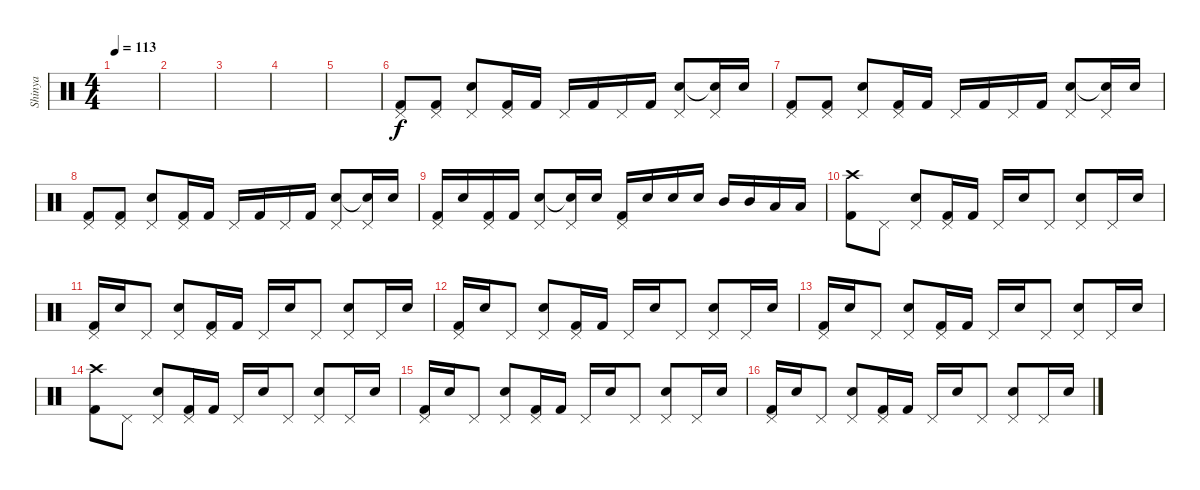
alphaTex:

\track ("Shinya" "Shinya") {instrument percussion}
\staff {score}
\articulation defaults
\ts (4 4)
\tempo 113
\clef neutral
\ks c
|
|
|
|
|
("Pedal Hi-Hat (hit)" "Kick (hit) 2").8 ("Pedal Hi-Hat (hit)" "Kick (hit) 2").8 ("Pedal Hi-Hat (hit)" "Electric Snare (hit)").8 ("Pedal Hi-Hat (hit)" "Kick (hit) 2").16 "Kick (hit) 2".16 "Pedal Hi-Hat (hit)".16 "Kick (hit) 2".16 "Pedal Hi-Hat (hit)".16 "Kick (hit) 2".16 ("Pedal Hi-Hat (hit)" "Electric Snare (hit)").8 ("Pedal Hi-Hat (hit)" "Snare (hit)"{t}).16 "Electric Snare (hit)".16 |
("Pedal Hi-Hat (hit)" "Kick (hit) 2").8 ("Pedal Hi-Hat (hit)" "Kick (hit) 2").8 ("Pedal Hi-Hat (hit)" "Electric Snare (hit)").8 ("Pedal Hi-Hat (hit)" "Kick (hit) 2").16 "Kick (hit) 2".16 "Pedal Hi-Hat (hit)".16 "Kick (hit) 2".16 "Pedal Hi-Hat (hit)".16 "Kick (hit) 2".16 ("Pedal Hi-Hat (hit)" "Electric Snare (hit)").8 ("Pedal Hi-Hat (hit)" "Snare (hit)"{t}).16 "Electric Snare (hit)".16 |
("Pedal Hi-Hat (hit)" "Kick (hit) 2").8 ("Pedal Hi-Hat (hit)" "Kick (hit) 2").8 ("Pedal Hi-Hat (hit)" "Electric Snare (hit)").8 ("Pedal Hi-Hat (hit)" "Kick (hit) 2").16 "Kick (hit) 2".16 "Pedal Hi-Hat (hit)".16 "Kick (hit) 2".16 "Pedal Hi-Hat (hit)".16 "Kick (hit) 2".16 ("Pedal Hi-Hat (hit)" "Electric Snare (hit)").8 ("Pedal Hi-Hat (hit)" "Snare (hit)"{t}).16 "Electric Snare (hit)".16 |
("Pedal Hi-Hat (hit)" "Kick (hit) 2").16 "Electric Snare (hit)".16 ("Pedal Hi-Hat (hit)" "Kick (hit) 2").16 "Kick (hit) 2".16 ("Pedal Hi-Hat (hit)" "Electric Snare (hit)").8 ("Pedal Hi-Hat (hit)" "Snare (hit)"{t}).16 "Electric Snare (hit)".16 ("Pedal Hi-Hat (hit)" "Kick (hit) 2").16 "Electric Snare (hit)".16 "Electric Snare (hit)".16 "Electric Snare (hit)".16 "Mid Tom (hit)".16 "Mid Tom (hit)".16 "Low Tom (hit)".16 "Low Tom (hit)".16 |
("Crash high (hit)" "Kick (hit) 2").8 "Pedal Hi-Hat (hit)".8 ("Pedal Hi-Hat (hit)" "Electric Snare (hit)").8 ("Pedal Hi-Hat (hit)" "Kick (hit) 2").16 "Kick (hit) 2".16 "Pedal Hi-Hat (hit)".16 "Electric Snare (hit)".16 "Pedal Hi-Hat (hit)".8 ("Pedal Hi-Hat (hit)" "Electric Snare (hit)").8 "Pedal Hi-Hat (hit)".16 "Electric Snare (hit)".16 |
("Pedal Hi-Hat (hit)" "Kick (hit) 2").16 "Electric Snare (hit)".16 "Pedal Hi-Hat (hit)".8 ("Pedal Hi-Hat (hit)" "Electric Snare (hit)").8 ("Pedal Hi-Hat (hit)" "Kick (hit) 2").16 "Kick (hit) 2".16 "Pedal Hi-Hat (hit)".16 "Electric Snare (hit)".16 "Pedal Hi-Hat (hit)".8 ("Pedal Hi-Hat (hit)" "Electric Snare (hit)").8 "Pedal Hi-Hat (hit)".16 "Electric Snare (hit)".16 |
("Pedal Hi-Hat (hit)" "Kick (hit) 2").16 "Electric Snare (hit)".16 "Pedal Hi-Hat (hit)".8 ("Pedal Hi-Hat (hit)" "Electric Snare (hit)").8 ("Pedal Hi-Hat (hit)" "Kick (hit) 2").16 "Kick (hit) 2".16 "Pedal Hi-Hat (hit)".16 "Electric Snare (hit)".16 "Pedal Hi-Hat (hit)".8 ("Pedal Hi-Hat (hit)" "Electric Snare (hit)").8 "Pedal Hi-Hat (hit)".16 "Electric Snare (hit)".16 |
("Pedal Hi-Hat (hit)" "Kick (hit) 2").16 "Electric Snare (hit)".16 "Pedal Hi-Hat (hit)".8 ("Pedal Hi-Hat (hit)" "Electric Snare (hit)").8 ("Pedal Hi-Hat (hit)" "Kick (hit) 2").16 "Kick (hit) 2".16 "Pedal Hi-Hat (hit)".16 "Electric Snare (hit)".16 "Pedal Hi-Hat (hit)".8 ("Pedal Hi-Hat (hit)" "Electric Snare (hit)").8 "Pedal Hi-Hat (hit)".16 "Electric Snare (hit)".16 |
("Crash high (hit)" "Kick (hit) 2").8 "Pedal Hi-Hat (hit)".8 ("Pedal Hi-Hat (hit)" "Electric Snare (hit)").8 ("Pedal Hi-Hat (hit)" "Kick (hit) 2").16 "Kick (hit) 2".16 "Pedal Hi-Hat (hit)".16 "Electric Snare (hit)".16 "Pedal Hi-Hat (hit)".8 ("Pedal Hi-Hat (hit)" "Electric Snare (hit)").8 "Pedal Hi-Hat (hit)".16 "Electric Snare (hit)".16 |
("Pedal Hi-Hat (hit)" "Kick (hit) 2").16 "Electric Snare (hit)".16 "Pedal Hi-Hat (hit)".8 ("Pedal Hi-Hat (hit)" "Electric Snare (hit)").8 ("Pedal Hi-Hat (hit)" "Kick (hit) 2").16 "Kick (hit) 2".16 "Pedal Hi-Hat (hit)".16 "Electric Snare (hit)".16 "Pedal Hi-Hat (hit)".8 ("Pedal Hi-Hat (hit)" "Electric Snare (hit)").8 "Pedal Hi-Hat (hit)".16 "Electric Snare (hit)".16 |
("Pedal Hi-Hat (hit)" "Kick (hit) 2").16 "Electric Snare (hit)".16 "Pedal Hi-Hat (hit)".8 ("Pedal Hi-Hat (hit)" "Electric Snare (hit)").8 ("Pedal Hi-Hat (hit)" "Kick (hit) 2").16 "Kick (hit) 2".16 "Pedal Hi-Hat (hit)".16 "Electric Snare (hit)".16 "Pedal Hi-Hat (hit)".8 ("Pedal Hi-Hat (hit)" "Electric Snare (hit)").8 "Pedal Hi-Hat (hit)".16 "Electric Snare (hit)".16
